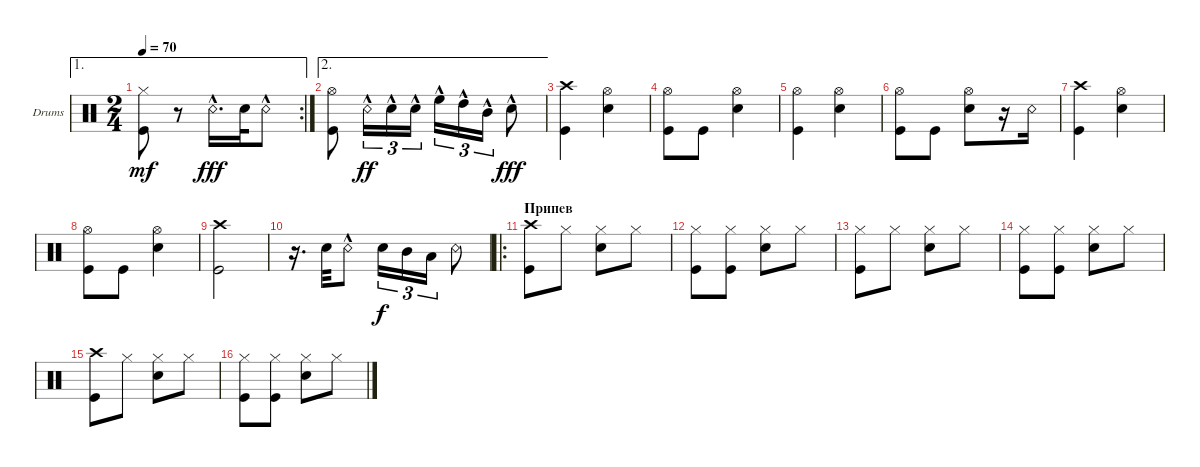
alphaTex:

\defaultSystemsLayout 4
\bracketExtendMode groupsimilarinstruments
\firstSystemTrackNameOrientation horizontal
\otherSystemsTrackNameOrientation horizontal
\track ("Drumkit" "Drums") {instrument percussion}
\staff {score}
\articulation defaults
\ae 1
\rc 2
\ts (2 4)
\tempo 70
\clef neutral
\ks c
("Kick (hit)" "Hi-Hat (closed)").8{dy mf} r.8 "Snare (rim shot)"{hac}.16{d dy fff} "Snare (hit) 2".32 "Snare (rim shot)"{hac}.8 |
\ae 2
("Kick (hit)" "Hi-Hat (open)").8 "Snare (rim shot)"{hac}.16{tu (3 2) dy ff} "Snare (hit) 2"{hac}.16{tu (3 2)} "Snare (hit) 2"{hac}.16{tu (3 2)} "High Floor Tom (hit)"{hac}.16{tu (3 2)} "High Tom (hit)"{hac}.16{tu (3 2)} "Mid Tom (hit)"{hac}.16{tu (3 2)} "Snare (hit) 2"{hac}.8{dy fff} |
("Kick (hit)" "Crash high (hit)").4 ("Hi-Hat (open)" "Snare (hit) 2").4 |
("Kick (hit)" "Hi-Hat (open)").8 "Kick (hit)".8 ("Snare (hit) 2" "Hi-Hat (open)").4 |
("Kick (hit)" "Hi-Hat (open)").4 ("Hi-Hat (open)" "Snare (hit) 2").4 |
("Kick (hit)" "Hi-Hat (open)").8 "Kick (hit)".8 ("Snare (hit) 2" "Hi-Hat (open)").8 r.16 "Snare (rim shot)".16 |
("Kick (hit)" "Crash high (hit)").4 ("Hi-Hat (open)" "Snare (hit) 2").4 |
("Kick (hit)" "Hi-Hat (open)").8 "Kick (hit)".8 ("Snare (hit) 2" "Hi-Hat (open)").4 |
("Kick (hit)" "Crash high (hit)").2 |
r.16{d} "Snare (hit) 2".32 "Snare (rim shot)"{hac}.8 "Snare (hit) 2".16{tu (3 2) dy f} "Mid Tom (hit)".16{tu (3 2)} "Low Tom (hit)".16{tu (3 2)} "Snare (rim shot)".8 |
\ro
\section ("" "Припев")
("Crash high (hit)" "Kick (hit)").8 "Hi-Hat (closed)".8 ("Hi-Hat (closed)" "Snare (hit) 2").8 "Hi-Hat (closed)".8 |
("Kick (hit)" "Hi-Hat (closed)").8 ("Kick (hit)" "Hi-Hat (closed)").8 ("Snare (hit) 2" "Hi-Hat (closed)").8 "Hi-Hat (closed)".8 |
("Kick (hit)" "Hi-Hat (closed)").8 "Hi-Hat (closed)".8 ("Hi-Hat (closed)" "Snare (hit) 2").8 "Hi-Hat (closed)".8 |
("Kick (hit)" "Hi-Hat (closed)").8 ("Kick (hit)" "Hi-Hat (closed)").8 ("Snare (hit) 2" "Hi-Hat (closed)").8 "Hi-Hat (closed)".8 |
("Crash high (hit)" "Kick (hit)").8 "Hi-Hat (closed)".8 ("Hi-Hat (closed)" "Snare (hit) 2").8 "Hi-Hat (closed)".8 |
("Kick (hit)" "Hi-Hat (closed)").8 ("Kick (hit)" "Hi-Hat (closed)").8 ("Snare (hit) 2" "Hi-Hat (closed)").8 "Hi-Hat (closed)".8
